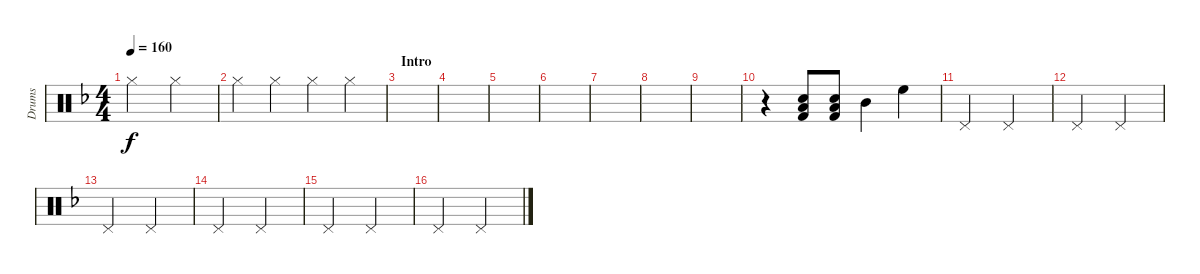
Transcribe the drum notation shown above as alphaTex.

\track ("Drums" "Drums") {instrument percussion}
\staff {score}
\articulation defaults
\ts (4 4)
\tempo 160
\clef neutral
\ks dminor "Hi-Hat (closed)".2{dy f} "Hi-Hat (closed)".2
|
"Hi-Hat (closed)".4 "Hi-Hat (closed)".4 "Hi-Hat (closed)".4 "Hi-Hat (closed)".4 |
\section ("" "Intro")
|
|
|
|
|
|
|
r.4 ("Snare (hit) 2" "Low Floor Tom (hit)" "Kick (hit) 2").8 ("Snare (hit) 2" "Low Floor Tom (hit)" "Kick (hit) 2").8 "Mid Tom (hit)".4 "High Floor Tom (hit)".4 |
"Pedal Hi-Hat (hit)".2 "Pedal Hi-Hat (hit)".2 |
"Pedal Hi-Hat (hit)".2 "Pedal Hi-Hat (hit)".2 |
"Pedal Hi-Hat (hit)".2 "Pedal Hi-Hat (hit)".2 |
"Pedal Hi-Hat (hit)".2 "Pedal Hi-Hat (hit)".2 |
"Pedal Hi-Hat (hit)".2 "Pedal Hi-Hat (hit)".2 |
"Pedal Hi-Hat (hit)".2 "Pedal Hi-Hat (hit)".2
